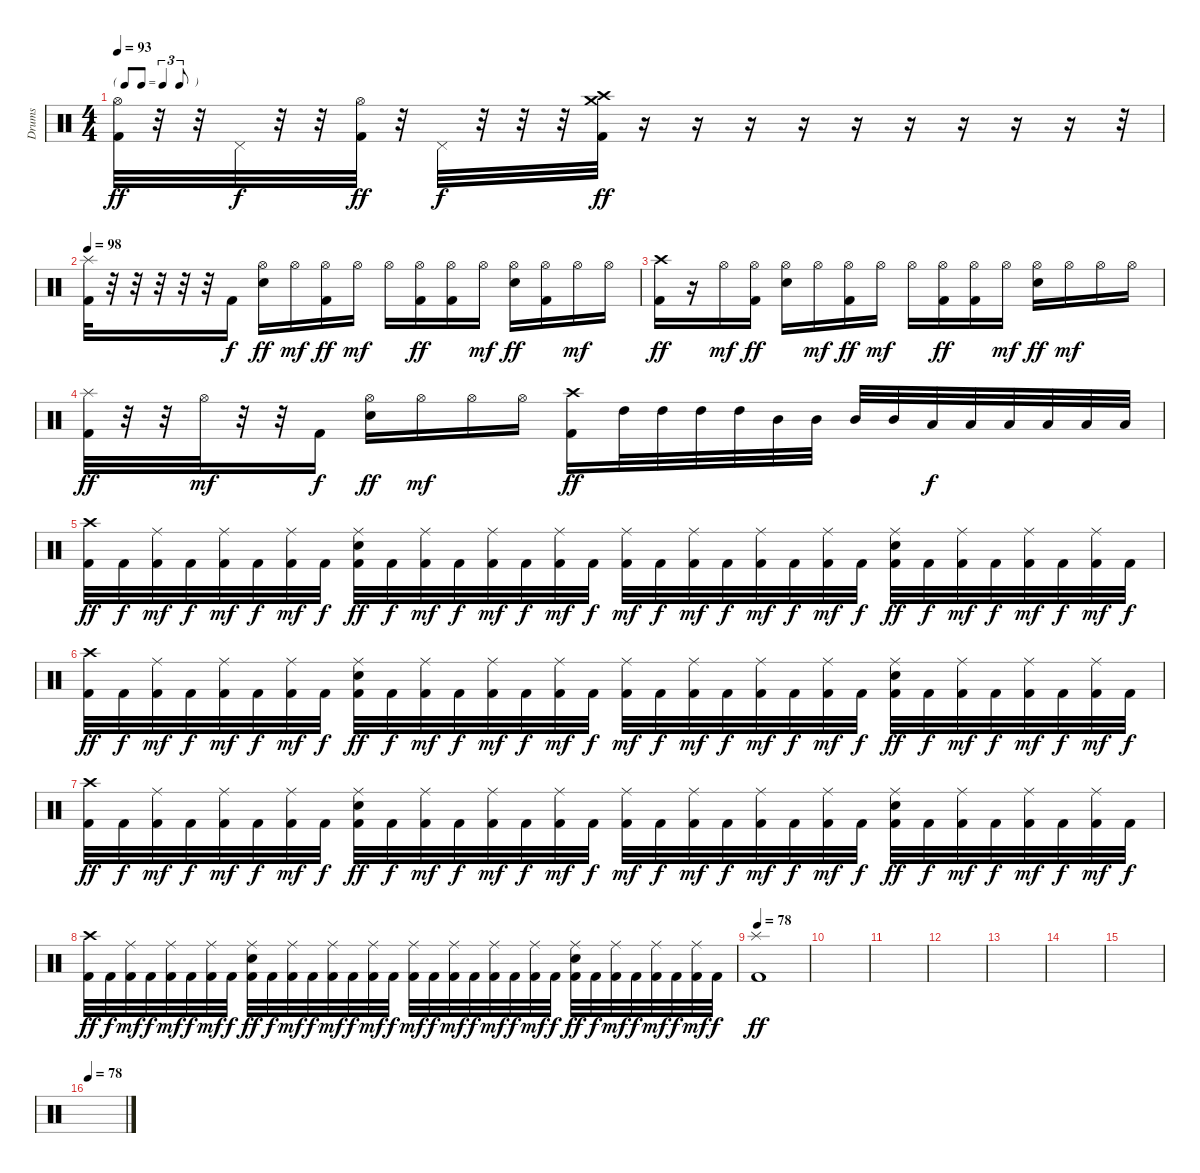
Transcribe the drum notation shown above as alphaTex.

\track ("Drums" "Drums") {instrument percussion}
\staff {score}
\articulation defaults
\ts (4 4)
\tf triplet8th
\tempo 93
\clef neutral
\ks c
("Hi-Hat (open)" "Kick (hit) 2").32{dy ff} r.32 r.32 "Pedal Hi-Hat (hit)".32{dy f} r.32 r.32 ("Hi-Hat (open)" "Kick (hit) 2").32{dy ff} r.32 "Pedal Hi-Hat (hit)".32{dy f} r.32 r.32 r.32 ("Crash high (hit)" "Crash medium (hit)" "Kick (hit) 2").32{dy ff} r.16 r.16 r.16 r.16 r.16 r.16 r.16 r.16 r.16 r.32 |
\tempo 98
("Splash (hit)" "Kick (hit) 2").32 r.32 r.32 r.32 r.32 r.32 "Kick (hit) 2".16{dy f} ("Hi-Hat (open)" "Electric Snare (hit)").16{dy ff} "Hi-Hat (open)".16{dy mf} ("Hi-Hat (open)" "Kick (hit) 2").16{dy ff} "Hi-Hat (open)".16{dy mf} "Hi-Hat (open)".16 ("Hi-Hat (open)" "Kick (hit) 2").16{dy ff} ("Hi-Hat (open)" "Kick (hit) 2").16 "Hi-Hat (open)".16{dy mf} ("Hi-Hat (open)" "Electric Snare (hit)").16{dy ff} ("Hi-Hat (open)" "Kick (hit) 2").16 "Hi-Hat (open)".16{dy mf} "Hi-Hat (open)".16 |
("Crash high (hit)" "Kick (hit) 2").16{dy ff} r.16 "Hi-Hat (open)".16{dy mf} ("Hi-Hat (open)" "Kick (hit) 2").16{dy ff} ("Hi-Hat (open)" "Electric Snare (hit)").16 "Hi-Hat (open)".16{dy mf} ("Hi-Hat (open)" "Kick (hit) 2").16{dy ff} "Hi-Hat (open)".16{dy mf} "Hi-Hat (open)".16 ("Hi-Hat (open)" "Kick (hit) 2").16{dy ff} ("Hi-Hat (open)" "Kick (hit) 2").16 "Hi-Hat (open)".16{dy mf} ("Hi-Hat (open)" "Electric Snare (hit)").16{dy ff} "Hi-Hat (open)".16{dy mf} "Hi-Hat (open)".16 "Hi-Hat (open)".16 |
("Splash (hit)" "Kick (hit) 2").32{dy ff} r.32 r.32 "Hi-Hat (open)".32{dy mf} r.32 r.32 "Kick (hit) 2".16{dy f} ("Hi-Hat (open)" "Electric Snare (hit)").16{dy ff} "Hi-Hat (open)".16{dy mf} "Hi-Hat (open)".16 "Hi-Hat (open)".16 ("Crash high (hit)" "Kick (hit) 2").16{dy ff} "High Tom (hit)".32 "High Tom (hit)".32 "High Tom (hit)".32 "High Tom (hit)".32 "Mid Tom (hit)".32 "Mid Tom (hit)".32 "Mid Tom (hit)".32 "Mid Tom (hit)".32 "Low Tom (hit)".32{dy f} "Low Tom (hit)".32 "Low Tom (hit)".32 "Low Tom (hit)".32 "Low Tom (hit)".32 "Low Tom (hit)".32 |
("Crash high (hit)" "Kick (hit) 2").32{dy ff} "Kick (hit) 2".32{dy f} ("Ride (middle)" "Kick (hit) 2").32{dy mf} "Kick (hit) 2".32{dy f} ("Ride (middle)" "Kick (hit) 2").32{dy mf} "Kick (hit) 2".32{dy f} ("Ride (middle)" "Kick (hit) 2").32{dy mf} "Kick (hit) 2".32{dy f} ("Ride (middle)" "Electric Snare (hit)" "Kick (hit) 2").32{dy ff} "Kick (hit) 2".32{dy f} ("Ride (middle)" "Kick (hit) 2").32{dy mf} "Kick (hit) 2".32{dy f} ("Ride (middle)" "Kick (hit) 2").32{dy mf} "Kick (hit) 2".32{dy f} ("Ride (middle)" "Kick (hit) 2").32{dy mf} "Kick (hit) 2".32{dy f} ("Ride (middle)" "Kick (hit) 2").32{dy mf} "Kick (hit) 2".32{dy f} ("Ride (middle)" "Kick (hit) 2").32{dy mf} "Kick (hit) 2".32{dy f} ("Ride (middle)" "Kick (hit) 2").32{dy mf} "Kick (hit) 2".32{dy f} ("Ride (middle)" "Kick (hit) 2").32{dy mf} "Kick (hit) 2".32{dy f} ("Ride (middle)" "Electric Snare (hit)" "Kick (hit) 2").32{dy ff} "Kick (hit) 2".32{dy f} ("Ride (middle)" "Kick (hit) 2").32{dy mf} "Kick (hit) 2".32{dy f} ("Ride (middle)" "Kick (hit) 2").32{dy mf} "Kick (hit) 2".32{dy f} ("Ride (middle)" "Kick (hit) 2").32{dy mf} "Kick (hit) 2".32{dy f} |
("Crash high (hit)" "Kick (hit) 2").32{dy ff} "Kick (hit) 2".32{dy f} ("Ride (middle)" "Kick (hit) 2").32{dy mf} "Kick (hit) 2".32{dy f} ("Ride (middle)" "Kick (hit) 2").32{dy mf} "Kick (hit) 2".32{dy f} ("Ride (middle)" "Kick (hit) 2").32{dy mf} "Kick (hit) 2".32{dy f} ("Ride (middle)" "Electric Snare (hit)" "Kick (hit) 2").32{dy ff} "Kick (hit) 2".32{dy f} ("Ride (middle)" "Kick (hit) 2").32{dy mf} "Kick (hit) 2".32{dy f} ("Ride (middle)" "Kick (hit) 2").32{dy mf} "Kick (hit) 2".32{dy f} ("Ride (middle)" "Kick (hit) 2").32{dy mf} "Kick (hit) 2".32{dy f} ("Ride (middle)" "Kick (hit) 2").32{dy mf} "Kick (hit) 2".32{dy f} ("Ride (middle)" "Kick (hit) 2").32{dy mf} "Kick (hit) 2".32{dy f} ("Ride (middle)" "Kick (hit) 2").32{dy mf} "Kick (hit) 2".32{dy f} ("Ride (middle)" "Kick (hit) 2").32{dy mf} "Kick (hit) 2".32{dy f} ("Ride (middle)" "Electric Snare (hit)" "Kick (hit) 2").32{dy ff} "Kick (hit) 2".32{dy f} ("Ride (middle)" "Kick (hit) 2").32{dy mf} "Kick (hit) 2".32{dy f} ("Ride (middle)" "Kick (hit) 2").32{dy mf} "Kick (hit) 2".32{dy f} ("Ride (middle)" "Kick (hit) 2").32{dy mf} "Kick (hit) 2".32{dy f} |
("Crash high (hit)" "Kick (hit) 2").32{dy ff} "Kick (hit) 2".32{dy f} ("Ride (middle)" "Kick (hit) 2").32{dy mf} "Kick (hit) 2".32{dy f} ("Ride (middle)" "Kick (hit) 2").32{dy mf} "Kick (hit) 2".32{dy f} ("Ride (middle)" "Kick (hit) 2").32{dy mf} "Kick (hit) 2".32{dy f} ("Ride (middle)" "Electric Snare (hit)" "Kick (hit) 2").32{dy ff} "Kick (hit) 2".32{dy f} ("Ride (middle)" "Kick (hit) 2").32{dy mf} "Kick (hit) 2".32{dy f} ("Ride (middle)" "Kick (hit) 2").32{dy mf} "Kick (hit) 2".32{dy f} ("Ride (middle)" "Kick (hit) 2").32{dy mf} "Kick (hit) 2".32{dy f} ("Ride (middle)" "Kick (hit) 2").32{dy mf} "Kick (hit) 2".32{dy f} ("Ride (middle)" "Kick (hit) 2").32{dy mf} "Kick (hit) 2".32{dy f} ("Ride (middle)" "Kick (hit) 2").32{dy mf} "Kick (hit) 2".32{dy f} ("Ride (middle)" "Kick (hit) 2").32{dy mf} "Kick (hit) 2".32{dy f} ("Ride (middle)" "Electric Snare (hit)" "Kick (hit) 2").32{dy ff} "Kick (hit) 2".32{dy f} ("Ride (middle)" "Kick (hit) 2").32{dy mf} "Kick (hit) 2".32{dy f} ("Ride (middle)" "Kick (hit) 2").32{dy mf} "Kick (hit) 2".32{dy f} ("Ride (middle)" "Kick (hit) 2").32{dy mf} "Kick (hit) 2".32{dy f} |
("Crash high (hit)" "Kick (hit) 2").32{dy ff} "Kick (hit) 2".32{dy f} ("Ride (middle)" "Kick (hit) 2").32{dy mf} "Kick (hit) 2".32{dy f} ("Ride (middle)" "Kick (hit) 2").32{dy mf} "Kick (hit) 2".32{dy f} ("Ride (middle)" "Kick (hit) 2").32{dy mf} "Kick (hit) 2".32{dy f} ("Ride (middle)" "Electric Snare (hit)" "Kick (hit) 2").32{dy ff} "Kick (hit) 2".32{dy f} ("Ride (middle)" "Kick (hit) 2").32{dy mf} "Kick (hit) 2".32{dy f} ("Ride (middle)" "Kick (hit) 2").32{dy mf} "Kick (hit) 2".32{dy f} ("Ride (middle)" "Kick (hit) 2").32{dy mf} "Kick (hit) 2".32{dy f} ("Ride (middle)" "Kick (hit) 2").32{dy mf} "Kick (hit) 2".32{dy f} ("Ride (middle)" "Kick (hit) 2").32{dy mf} "Kick (hit) 2".32{dy f} ("Ride (middle)" "Kick (hit) 2").32{dy mf} "Kick (hit) 2".32{dy f} ("Ride (middle)" "Kick (hit) 2").32{dy mf} "Kick (hit) 2".32{dy f} ("Ride (middle)" "Electric Snare (hit)" "Kick (hit) 2").32{dy ff} "Kick (hit) 2".32{dy f} ("Ride (middle)" "Kick (hit) 2").32{dy mf} "Kick (hit) 2".32{dy f} ("Ride (middle)" "Kick (hit) 2").32{dy mf} "Kick (hit) 2".32{dy f} ("Ride (middle)" "Kick (hit) 2").32{dy mf} "Kick (hit) 2".32{dy f} |
\tempo 78
("Splash (hit)" "Kick (hit) 2").1{dy ff} |
|
|
|
|
|
|
\tempo 78
